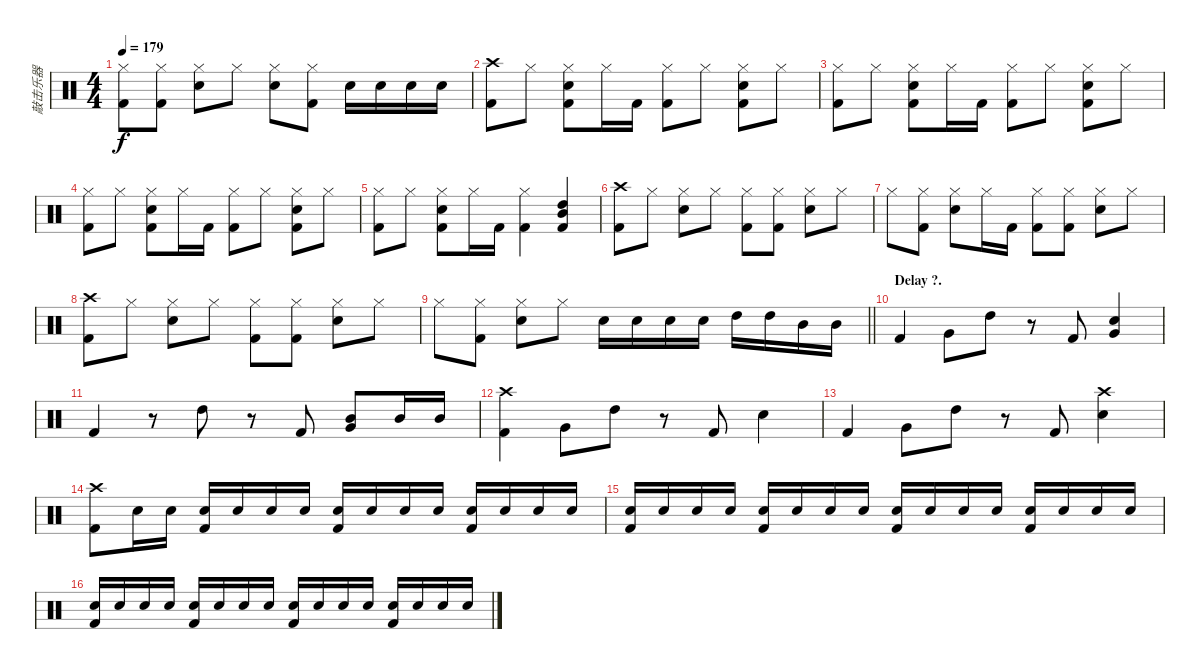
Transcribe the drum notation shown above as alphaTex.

\track ("敲击乐器" "敲击乐器") {instrument percussion}
\staff {score}
\articulation defaults
\ts (4 4)
\tempo 179
\clef neutral
\ks c
("Hi-Hat (closed)" "Kick (hit) 2").8{dy f} ("Hi-Hat (closed)" "Kick (hit) 2").8 ("Hi-Hat (closed)" "Snare (hit) 2").8 "Hi-Hat (closed)".8 ("Hi-Hat (closed)" "Snare (hit) 2").8 ("Hi-Hat (closed)" "Kick (hit) 2").8 "Snare (hit) 2".16 "Snare (hit) 2".16 "Snare (hit) 2".16 "Snare (hit) 2".16 |
("Crash high (hit)" "Kick (hit) 2").8 "Hi-Hat (closed)".8 ("Hi-Hat (closed)" "Snare (hit) 2" "Kick (hit) 2").8 "Hi-Hat (closed)".16 "Kick (hit) 2".16 ("Hi-Hat (closed)" "Kick (hit) 2").8 "Hi-Hat (closed)".8 ("Hi-Hat (closed)" "Snare (hit) 2" "Kick (hit) 2").8 "Hi-Hat (closed)".8 |
("Hi-Hat (closed)" "Kick (hit) 2").8 "Hi-Hat (closed)".8 ("Hi-Hat (closed)" "Snare (hit) 2" "Kick (hit) 2").8 "Hi-Hat (closed)".16 "Kick (hit) 2".16 ("Hi-Hat (closed)" "Kick (hit) 2").8 "Hi-Hat (closed)".8 ("Hi-Hat (closed)" "Snare (hit) 2" "Kick (hit) 2").8 "Hi-Hat (closed)".8 |
("Hi-Hat (closed)" "Kick (hit) 2").8 "Hi-Hat (closed)".8 ("Hi-Hat (closed)" "Snare (hit) 2" "Kick (hit) 2").8 "Hi-Hat (closed)".16 "Kick (hit) 2".16 ("Hi-Hat (closed)" "Kick (hit) 2").8 "Hi-Hat (closed)".8 ("Hi-Hat (closed)" "Snare (hit) 2" "Kick (hit) 2").8 "Hi-Hat (closed)".8 |
("Hi-Hat (closed)" "Kick (hit) 2").8 "Hi-Hat (closed)".8 ("Hi-Hat (closed)" "Snare (hit) 2" "Kick (hit) 2").8 "Hi-Hat (closed)".16 "Kick (hit) 2".16 ("Kick (hit) 2" "Hi-Hat (closed)").4 ("Kick (hit) 2" "High Tom (hit)" "Mid Tom (hit)").4 |
("Crash high (hit)" "Kick (hit) 2").8 "Hi-Hat (closed)".8 ("Hi-Hat (closed)" "Snare (hit) 2").8 "Hi-Hat (closed)".8 ("Hi-Hat (closed)" "Kick (hit) 2").8 ("Hi-Hat (closed)" "Kick (hit) 2").8 ("Hi-Hat (closed)" "Snare (hit) 2").8 "Hi-Hat (closed)".8 |
"Hi-Hat (closed)".8 ("Hi-Hat (closed)" "Kick (hit) 2").8 ("Hi-Hat (closed)" "Snare (hit) 2").8 "Hi-Hat (closed)".16 "Kick (hit) 2".16 ("Hi-Hat (closed)" "Kick (hit) 2").8 ("Hi-Hat (closed)" "Kick (hit) 2").8 ("Hi-Hat (closed)" "Snare (hit) 2").8 "Hi-Hat (closed)".8 |
("Crash high (hit)" "Kick (hit) 2").8 "Hi-Hat (closed)".8 ("Hi-Hat (closed)" "Snare (hit) 2").8 "Hi-Hat (closed)".8 ("Hi-Hat (closed)" "Kick (hit) 2").8 ("Hi-Hat (closed)" "Kick (hit) 2").8 ("Hi-Hat (closed)" "Snare (hit) 2").8 "Hi-Hat (closed)".8 |
\barLineRight lightlight "Hi-Hat (closed)".8
("Hi-Hat (closed)" "Kick (hit) 2").8 ("Hi-Hat (closed)" "Snare (hit) 2").8 "Hi-Hat (closed)".8 "Snare (hit) 2".16 "Snare (hit) 2".16 "Snare (hit) 2".16 "Snare (hit) 2".16 "High Tom (hit)".16 "High Tom (hit)".16 "Mid Tom (hit)".16 "Mid Tom (hit)".16 |
\section ("" "Delay ?.")
"Kick (hit) 2".4 "Very Low Tom (hit)".8 "High Tom (hit)".8 r.8 "Kick (hit) 2".8 ("Snare (hit) 2" "Very Low Tom (hit)").4 |
"Kick (hit) 2".4 r.8 "High Tom (hit)".8 r.8 "Kick (hit) 2".8 ("Very Low Tom (hit)" "Mid Tom (hit)").8 "Mid Tom (hit)".16 "Mid Tom (hit)".16 |
("Kick (hit) 2" "Crash high (hit)").4 "Very Low Tom (hit)".8 "High Tom (hit)".8 r.8 "Kick (hit) 2".8 "Snare (hit) 2".4 |
"Kick (hit) 2".4 "Very Low Tom (hit)".8 "High Tom (hit)".8 r.8 "Kick (hit) 2".8 ("Snare (hit) 2" "Crash high (hit)").4 |
("Kick (hit) 2" "Crash high (hit)").8 "Snare (hit) 2".16 "Snare (hit) 2".16 ("Snare (hit) 2" "Kick (hit) 2").16 "Snare (hit) 2".16 "Snare (hit) 2".16 "Snare (hit) 2".16 ("Snare (hit) 2" "Kick (hit) 2").16 "Snare (hit) 2".16 "Snare (hit) 2".16 "Snare (hit) 2".16 ("Snare (hit) 2" "Kick (hit) 2").16 "Snare (hit) 2".16 "Snare (hit) 2".16 "Snare (hit) 2".16 |
("Snare (hit) 2" "Kick (hit) 2").16 "Snare (hit) 2".16 "Snare (hit) 2".16 "Snare (hit) 2".16 ("Snare (hit) 2" "Kick (hit) 2").16 "Snare (hit) 2".16 "Snare (hit) 2".16 "Snare (hit) 2".16 ("Snare (hit) 2" "Kick (hit) 2").16 "Snare (hit) 2".16 "Snare (hit) 2".16 "Snare (hit) 2".16 ("Snare (hit) 2" "Kick (hit) 2").16 "Snare (hit) 2".16 "Snare (hit) 2".16 "Snare (hit) 2".16 |
("Snare (hit) 2" "Kick (hit) 2").16 "Snare (hit) 2".16 "Snare (hit) 2".16 "Snare (hit) 2".16 ("Snare (hit) 2" "Kick (hit) 2").16 "Snare (hit) 2".16 "Snare (hit) 2".16 "Snare (hit) 2".16 ("Snare (hit) 2" "Kick (hit) 2").16 "Snare (hit) 2".16 "Snare (hit) 2".16 "Snare (hit) 2".16 ("Snare (hit) 2" "Kick (hit) 2").16 "Snare (hit) 2".16 "Snare (hit) 2".16 "Snare (hit) 2".16
